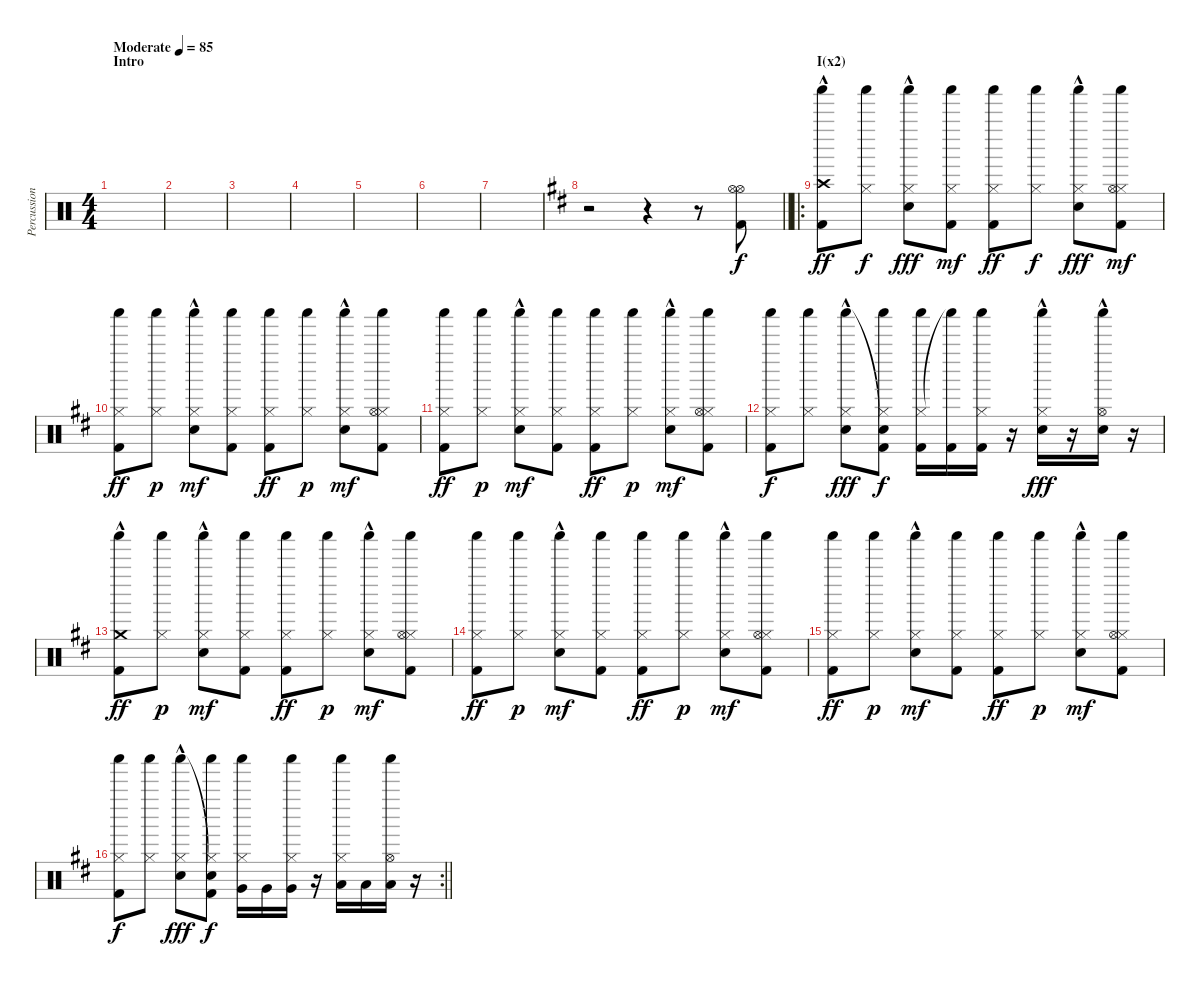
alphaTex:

\track ("Percussion" "Percussion") {instrument percussion}
\staff {score}
\articulation defaults
\ts (4 4)
\section ("" "Intro")
\tempo (85 "Moderate")
\clef neutral
\ks c
|
|
|
|
|
|
|
\barLineRight lightlight
\ks d
r.2 r.4 r.8 ("Hi-Hat (open)" "Hi-Hat (open)" "Kick (hit) 2").8 |
\ro
\section ("" "I(x2)")
("Crash high (hit)"{hac} "Shaker (hit)" "Kick (hit) 2").8{dy ff} ("Hi-Hat (closed)" "Shaker (hit)").8{dy f} ("Hi-Hat (closed)" "Snare (hit) 2"{hac} "Shaker (hit)").8{dy fff} ("Hi-Hat (closed)" "Shaker (hit)" "Kick (hit) 2").8{dy mf} ("Hi-Hat (closed)" "Shaker (hit)" "Kick (hit) 2").8{dy ff} ("Hi-Hat (closed)" "Shaker (hit)").8{dy f} ("Hi-Hat (closed)" "Snare (hit) 2"{hac} "Shaker (hit)").8{dy fff} ("Hi-Hat (closed)" "Hi-Hat (open)" "Shaker (hit)" "Kick (hit) 2").8{dy mf} |
("Hi-Hat (closed)" "Shaker (hit)" "Kick (hit) 2").8{dy ff} ("Hi-Hat (closed)" "Shaker (hit)").8{dy p} ("Hi-Hat (closed)" "Snare (hit) 2"{hac} "Shaker (hit)").8{dy mf} ("Hi-Hat (closed)" "Shaker (hit)" "Kick (hit) 2").8 ("Hi-Hat (closed)" "Shaker (hit)" "Kick (hit) 2").8{dy ff} ("Hi-Hat (closed)" "Shaker (hit)").8{dy p} ("Hi-Hat (closed)" "Snare (hit) 2"{hac} "Shaker (hit)").8{dy mf} ("Hi-Hat (closed)" "Hi-Hat (open)" "Shaker (hit)" "Kick (hit) 2").8 |
("Hi-Hat (closed)" "Shaker (hit)" "Kick (hit) 2").8{dy ff} ("Hi-Hat (closed)" "Shaker (hit)").8{dy p} ("Hi-Hat (closed)" "Snare (hit) 2"{hac} "Shaker (hit)").8{dy mf} ("Hi-Hat (closed)" "Shaker (hit)" "Kick (hit) 2").8 ("Hi-Hat (closed)" "Shaker (hit)" "Kick (hit) 2").8{dy ff} ("Hi-Hat (closed)" "Shaker (hit)").8{dy p} ("Hi-Hat (closed)" "Snare (hit) 2"{hac} "Shaker (hit)").8{dy mf} ("Hi-Hat (closed)" "Shaker (hit)" "Hi-Hat (open)" "Kick (hit) 2").8 |
("Hi-Hat (closed)" "Shaker (hit)" "Kick (hit) 2").8{dy f} ("Hi-Hat (closed)" "Shaker (hit)").8 ("Hi-Hat (closed)" "Snare (hit) 2"{hac} "Shaker (hit)").8{dy fff} ("Hi-Hat (closed)" "Shaker (hit)" "Snare (hit) 2"{t} "Kick (hit) 2").8{dy f} ("Hi-Hat (closed)" "Shaker (hit)" "Kick (hit) 2").16 ("Shaker (hit)"{t} "Kick (hit) 2").16 ("Hi-Hat (closed)" "Shaker (hit)" "Kick (hit) 2").16 r.16 ("Hi-Hat (closed)" "Snare (hit) 2"{hac} "Shaker (hit)").16{dy fff} r.16 ("Hi-Hat (open)" "Snare (hit) 2"{hac} "Shaker (hit)").16 r.16 |
("Crash medium (hit)"{hac} "Shaker (hit)" "Kick (hit) 2").8{dy ff} ("Hi-Hat (closed)" "Shaker (hit)").8{dy p} ("Hi-Hat (closed)" "Snare (hit) 2"{hac} "Shaker (hit)").8{dy mf} ("Hi-Hat (closed)" "Shaker (hit)" "Kick (hit) 2").8 ("Hi-Hat (closed)" "Shaker (hit)" "Kick (hit) 2").8{dy ff} ("Hi-Hat (closed)" "Shaker (hit)").8{dy p} ("Hi-Hat (closed)" "Snare (hit) 2"{hac} "Shaker (hit)").8{dy mf} ("Hi-Hat (closed)" "Hi-Hat (open)" "Shaker (hit)" "Kick (hit) 2").8 |
("Hi-Hat (closed)" "Shaker (hit)" "Kick (hit) 2").8{dy ff} ("Hi-Hat (closed)" "Shaker (hit)").8{dy p} ("Hi-Hat (closed)" "Snare (hit) 2"{hac} "Shaker (hit)").8{dy mf} ("Hi-Hat (closed)" "Shaker (hit)" "Kick (hit) 2").8 ("Hi-Hat (closed)" "Shaker (hit)" "Kick (hit) 2").8{dy ff} ("Hi-Hat (closed)" "Shaker (hit)").8{dy p} ("Hi-Hat (closed)" "Snare (hit) 2"{hac} "Shaker (hit)").8{dy mf} ("Hi-Hat (closed)" "Hi-Hat (open)" "Shaker (hit)" "Kick (hit) 2").8 |
("Hi-Hat (closed)" "Shaker (hit)" "Kick (hit) 2").8{dy ff} ("Hi-Hat (closed)" "Shaker (hit)").8{dy p} ("Hi-Hat (closed)" "Snare (hit) 2"{hac} "Shaker (hit)").8{dy mf} ("Hi-Hat (closed)" "Shaker (hit)" "Kick (hit) 2").8 ("Hi-Hat (closed)" "Shaker (hit)" "Kick (hit) 2").8{dy ff} ("Hi-Hat (closed)" "Shaker (hit)").8{dy p} ("Hi-Hat (closed)" "Snare (hit) 2"{hac} "Shaker (hit)").8{dy mf} ("Hi-Hat (closed)" "Shaker (hit)" "Hi-Hat (open)" "Kick (hit) 2").8 |
\rc 2
\barLineRight lightlight
("Hi-Hat (closed)" "Shaker (hit)" "Kick (hit) 2").8{dy f} ("Hi-Hat (closed)" "Shaker (hit)").8 ("Hi-Hat (closed)" "Snare (hit) 2"{hac} "Shaker (hit)").8{dy fff} ("Hi-Hat (closed)" "Shaker (hit)" "Snare (hit) 2"{t} "Kick (hit) 2").8{dy f} ("Hi-Hat (closed)" "Shaker (hit)" "Very Low Tom (hit)").16 "Very Low Tom (hit)".16 ("Hi-Hat (closed)" "Shaker (hit)" "Very Low Tom (hit)").16 r.16 ("Hi-Hat (closed)" "Shaker (hit)" "Low Tom (hit)").16 "Low Tom (hit)".16 ("Hi-Hat (open)" "Shaker (hit)" "Low Tom (hit)").16 r.16
